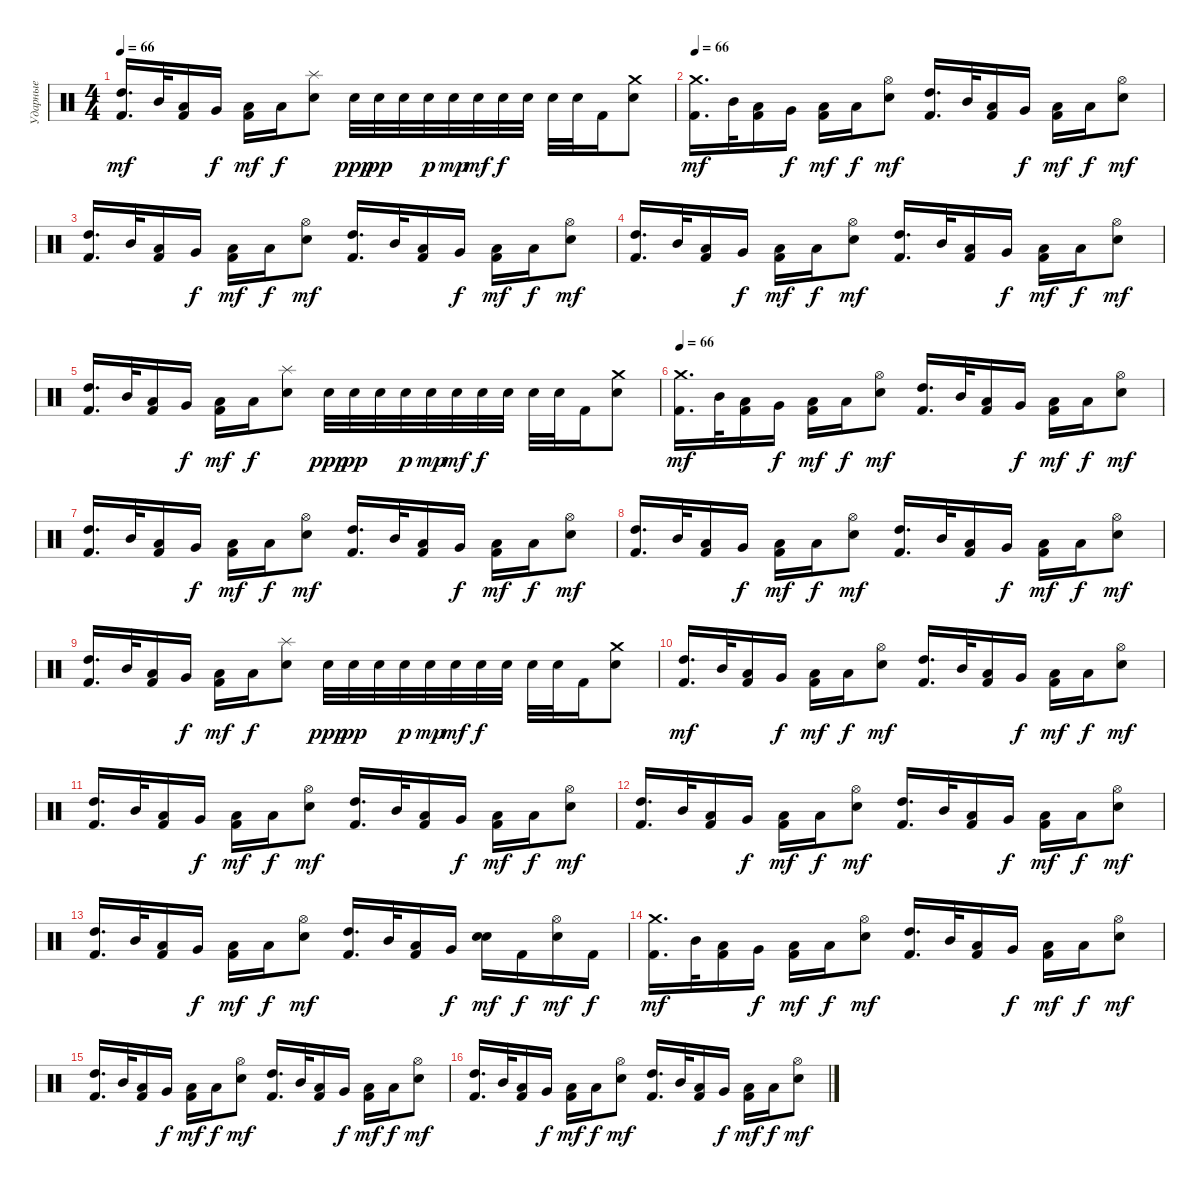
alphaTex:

\track ("Ударные" "Ударные") {instrument percussion}
\staff {score}
\articulation defaults
\ts (4 4)
\tempo 66
\clef neutral
\ks c
("High Tom (hit)" "Kick (hit) 2").16{d dy mf} "Mid Tom (hit)".32 ("Low Tom (hit)" "Kick (hit) 2").16 "Very Low Tom (hit)".16{dy f} ("Low Floor Tom (hit)" "Kick (hit) 2").16{dy mf} "Low Tom (hit)".16{dy f} ("Splash (hit)" "Snare (hit) 2").8 "Snare (hit) 2".32{dy ppp} "Snare (hit) 2".32{dy pp} "Snare (hit) 2".32 "Snare (hit) 2".32{dy p} "Snare (hit) 2".32{dy mp} "Snare (hit) 2".32{dy mf} "Snare (hit) 2".32{dy f} "Snare (hit) 2".32 "Snare (hit) 2".32 "Snare (hit) 2".32 "Kick (hit) 2".16 ("Crash medium (hit)" "Snare (hit) 2").8 |
\tempo 66
("Crash medium (hit)" "Kick (hit) 2").16{d dy mf} "Mid Tom (hit)".32 ("Low Tom (hit)" "Kick (hit) 2").16 "Very Low Tom (hit)".16{dy f} ("Low Floor Tom (hit)" "Kick (hit) 2").16{dy mf} "Low Tom (hit)".16{dy f} ("Hi-Hat (open)" "Snare (hit) 2").8{dy mf} ("High Tom (hit)" "Kick (hit) 2").16{d} "Mid Tom (hit)".32 ("Low Tom (hit)" "Kick (hit) 2").16 "Very Low Tom (hit)".16{dy f} ("Low Floor Tom (hit)" "Kick (hit) 2").16{dy mf} "Low Tom (hit)".16{dy f} ("Hi-Hat (open)" "Snare (hit) 2").8{dy mf} |
("High Tom (hit)" "Kick (hit) 2").16{d} "Mid Tom (hit)".32 ("Low Tom (hit)" "Kick (hit) 2").16 "Very Low Tom (hit)".16{dy f} ("Low Floor Tom (hit)" "Kick (hit) 2").16{dy mf} "Low Tom (hit)".16{dy f} ("Hi-Hat (open)" "Snare (hit) 2").8{dy mf} ("High Tom (hit)" "Kick (hit) 2").16{d} "Mid Tom (hit)".32 ("Low Tom (hit)" "Kick (hit) 2").16 "Very Low Tom (hit)".16{dy f} ("Low Floor Tom (hit)" "Kick (hit) 2").16{dy mf} "Low Tom (hit)".16{dy f} ("Hi-Hat (open)" "Snare (hit) 2").8{dy mf} |
("High Tom (hit)" "Kick (hit) 2").16{d} "Mid Tom (hit)".32 ("Low Tom (hit)" "Kick (hit) 2").16 "Very Low Tom (hit)".16{dy f} ("Low Floor Tom (hit)" "Kick (hit) 2").16{dy mf} "Low Tom (hit)".16{dy f} ("Hi-Hat (open)" "Snare (hit) 2").8{dy mf} ("High Tom (hit)" "Kick (hit) 2").16{d} "Mid Tom (hit)".32 ("Low Tom (hit)" "Kick (hit) 2").16 "Very Low Tom (hit)".16{dy f} ("Low Floor Tom (hit)" "Kick (hit) 2").16{dy mf} "Low Tom (hit)".16{dy f} ("Hi-Hat (open)" "Snare (hit) 2").8{dy mf} |
("High Tom (hit)" "Kick (hit) 2").16{d} "Mid Tom (hit)".32 ("Low Tom (hit)" "Kick (hit) 2").16 "Very Low Tom (hit)".16{dy f} ("Low Floor Tom (hit)" "Kick (hit) 2").16{dy mf} "Low Tom (hit)".16{dy f} ("Splash (hit)" "Snare (hit) 2").8 "Snare (hit) 2".32{dy ppp} "Snare (hit) 2".32{dy pp} "Snare (hit) 2".32 "Snare (hit) 2".32{dy p} "Snare (hit) 2".32{dy mp} "Snare (hit) 2".32{dy mf} "Snare (hit) 2".32{dy f} "Snare (hit) 2".32 "Snare (hit) 2".32 "Snare (hit) 2".32 "Kick (hit) 2".16 ("Crash medium (hit)" "Snare (hit) 2").8 |
\tempo 66
("Crash medium (hit)" "Kick (hit) 2").16{d dy mf} "Mid Tom (hit)".32 ("Low Tom (hit)" "Kick (hit) 2").16 "Very Low Tom (hit)".16{dy f} ("Low Floor Tom (hit)" "Kick (hit) 2").16{dy mf} "Low Tom (hit)".16{dy f} ("Hi-Hat (open)" "Snare (hit) 2").8{dy mf} ("High Tom (hit)" "Kick (hit) 2").16{d} "Mid Tom (hit)".32 ("Low Tom (hit)" "Kick (hit) 2").16 "Very Low Tom (hit)".16{dy f} ("Low Floor Tom (hit)" "Kick (hit) 2").16{dy mf} "Low Tom (hit)".16{dy f} ("Hi-Hat (open)" "Snare (hit) 2").8{dy mf} |
("High Tom (hit)" "Kick (hit) 2").16{d} "Mid Tom (hit)".32 ("Low Tom (hit)" "Kick (hit) 2").16 "Very Low Tom (hit)".16{dy f} ("Low Floor Tom (hit)" "Kick (hit) 2").16{dy mf} "Low Tom (hit)".16{dy f} ("Hi-Hat (open)" "Snare (hit) 2").8{dy mf} ("High Tom (hit)" "Kick (hit) 2").16{d} "Mid Tom (hit)".32 ("Low Tom (hit)" "Kick (hit) 2").16 "Very Low Tom (hit)".16{dy f} ("Low Floor Tom (hit)" "Kick (hit) 2").16{dy mf} "Low Tom (hit)".16{dy f} ("Hi-Hat (open)" "Snare (hit) 2").8{dy mf} |
("High Tom (hit)" "Kick (hit) 2").16{d} "Mid Tom (hit)".32 ("Low Tom (hit)" "Kick (hit) 2").16 "Very Low Tom (hit)".16{dy f} ("Low Floor Tom (hit)" "Kick (hit) 2").16{dy mf} "Low Tom (hit)".16{dy f} ("Hi-Hat (open)" "Snare (hit) 2").8{dy mf} ("High Tom (hit)" "Kick (hit) 2").16{d} "Mid Tom (hit)".32 ("Low Tom (hit)" "Kick (hit) 2").16 "Very Low Tom (hit)".16{dy f} ("Low Floor Tom (hit)" "Kick (hit) 2").16{dy mf} "Low Tom (hit)".16{dy f} ("Hi-Hat (open)" "Snare (hit) 2").8{dy mf} |
("High Tom (hit)" "Kick (hit) 2").16{d} "Mid Tom (hit)".32 ("Low Tom (hit)" "Kick (hit) 2").16 "Very Low Tom (hit)".16{dy f} ("Low Floor Tom (hit)" "Kick (hit) 2").16{dy mf} "Low Tom (hit)".16{dy f} ("Splash (hit)" "Snare (hit) 2").8 "Snare (hit) 2".32{dy ppp} "Snare (hit) 2".32{dy pp} "Snare (hit) 2".32 "Snare (hit) 2".32{dy p} "Snare (hit) 2".32{dy mp} "Snare (hit) 2".32{dy mf} "Snare (hit) 2".32{dy f} "Snare (hit) 2".32 "Snare (hit) 2".32 "Snare (hit) 2".32 "Kick (hit) 2".16 ("Crash medium (hit)" "Snare (hit) 2").8 |
("High Tom (hit)" "Kick (hit) 2").16{d dy mf} "Mid Tom (hit)".32 ("Low Tom (hit)" "Kick (hit) 2").16 "Very Low Tom (hit)".16{dy f} ("Low Floor Tom (hit)" "Kick (hit) 2").16{dy mf} "Low Tom (hit)".16{dy f} ("Hi-Hat (open)" "Snare (hit) 2").8{dy mf} ("High Tom (hit)" "Kick (hit) 2").16{d} "Mid Tom (hit)".32 ("Low Tom (hit)" "Kick (hit) 2").16 "Very Low Tom (hit)".16{dy f} ("Low Floor Tom (hit)" "Kick (hit) 2").16{dy mf} "Low Tom (hit)".16{dy f} ("Hi-Hat (open)" "Snare (hit) 2").8{dy mf} |
("High Tom (hit)" "Kick (hit) 2").16{d} "Mid Tom (hit)".32 ("Low Tom (hit)" "Kick (hit) 2").16 "Very Low Tom (hit)".16{dy f} ("Low Floor Tom (hit)" "Kick (hit) 2").16{dy mf} "Low Tom (hit)".16{dy f} ("Hi-Hat (open)" "Snare (hit) 2").8{dy mf} ("High Tom (hit)" "Kick (hit) 2").16{d} "Mid Tom (hit)".32 ("Low Tom (hit)" "Kick (hit) 2").16 "Very Low Tom (hit)".16{dy f} ("Low Floor Tom (hit)" "Kick (hit) 2").16{dy mf} "Low Tom (hit)".16{dy f} ("Hi-Hat (open)" "Snare (hit) 2").8{dy mf} |
("High Tom (hit)" "Kick (hit) 2").16{d} "Mid Tom (hit)".32 ("Low Tom (hit)" "Kick (hit) 2").16 "Very Low Tom (hit)".16{dy f} ("Low Floor Tom (hit)" "Kick (hit) 2").16{dy mf} "Low Tom (hit)".16{dy f} ("Hi-Hat (open)" "Snare (hit) 2").8{dy mf} ("High Tom (hit)" "Kick (hit) 2").16{d} "Mid Tom (hit)".32 ("Low Tom (hit)" "Kick (hit) 2").16 "Very Low Tom (hit)".16{dy f} ("Low Floor Tom (hit)" "Kick (hit) 2").16{dy mf} "Low Tom (hit)".16{dy f} ("Hi-Hat (open)" "Snare (hit) 2").8{dy mf} |
("High Tom (hit)" "Kick (hit) 2").16{d} "Mid Tom (hit)".32 ("Low Tom (hit)" "Kick (hit) 2").16 "Very Low Tom (hit)".16{dy f} ("Low Floor Tom (hit)" "Kick (hit) 2").16{dy mf} "Low Tom (hit)".16{dy f} ("Hi-Hat (open)" "Snare (hit) 2").8{dy mf} ("High Tom (hit)" "Kick (hit) 2").16{d} "Mid Tom (hit)".32 ("Low Tom (hit)" "Kick (hit) 2").16 "Very Low Tom (hit)".16{dy f} ("Snare (hit) 2" "Snare (hit) 2").16{bd 120 dy mf} "Kick (hit) 2".16{dy f} ("Hi-Hat (open)" "Snare (hit) 2").16{dy mf} "Kick (hit) 2".16{dy f} |
("Crash medium (hit)" "Kick (hit) 2").16{d dy mf} "Mid Tom (hit)".32 ("Low Tom (hit)" "Kick (hit) 2").16 "Very Low Tom (hit)".16{dy f} ("Low Floor Tom (hit)" "Kick (hit) 2").16{dy mf} "Low Tom (hit)".16{dy f} ("Hi-Hat (open)" "Snare (hit) 2").8{dy mf} ("High Tom (hit)" "Kick (hit) 2").16{d} "Mid Tom (hit)".32 ("Low Tom (hit)" "Kick (hit) 2").16 "Very Low Tom (hit)".16{dy f} ("Low Floor Tom (hit)" "Kick (hit) 2").16{dy mf} "Low Tom (hit)".16{dy f} ("Hi-Hat (open)" "Snare (hit) 2").8{dy mf} |
("High Tom (hit)" "Kick (hit) 2").16{d} "Mid Tom (hit)".32 ("Low Tom (hit)" "Kick (hit) 2").16 "Very Low Tom (hit)".16{dy f} ("Low Floor Tom (hit)" "Kick (hit) 2").16{dy mf} "Low Tom (hit)".16{dy f} ("Hi-Hat (open)" "Snare (hit) 2").8{dy mf} ("High Tom (hit)" "Kick (hit) 2").16{d} "Mid Tom (hit)".32 ("Low Tom (hit)" "Kick (hit) 2").16 "Very Low Tom (hit)".16{dy f} ("Low Floor Tom (hit)" "Kick (hit) 2").16{dy mf} "Low Tom (hit)".16{dy f} ("Hi-Hat (open)" "Snare (hit) 2").8{dy mf} |
("High Tom (hit)" "Kick (hit) 2").16{d} "Mid Tom (hit)".32 ("Low Tom (hit)" "Kick (hit) 2").16 "Very Low Tom (hit)".16{dy f} ("Low Floor Tom (hit)" "Kick (hit) 2").16{dy mf} "Low Tom (hit)".16{dy f} ("Hi-Hat (open)" "Snare (hit) 2").8{dy mf} ("High Tom (hit)" "Kick (hit) 2").16{d} "Mid Tom (hit)".32 ("Low Tom (hit)" "Kick (hit) 2").16 "Very Low Tom (hit)".16{dy f} ("Low Floor Tom (hit)" "Kick (hit) 2").16{dy mf} "Low Tom (hit)".16{dy f} ("Hi-Hat (open)" "Snare (hit) 2").8{dy mf}
